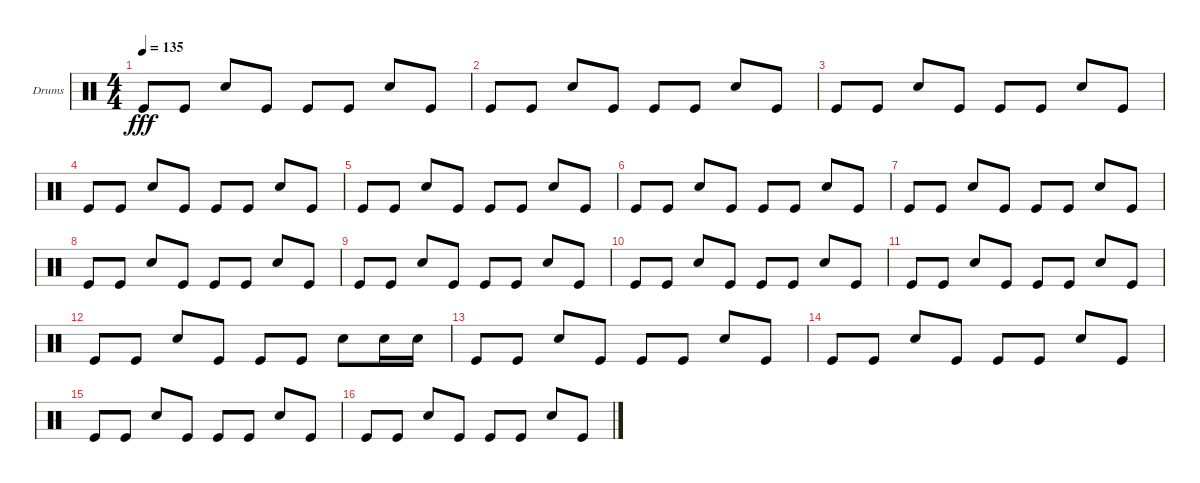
\defaultSystemsLayout 4
\bracketExtendMode groupsimilarinstruments
\firstSystemTrackNameOrientation horizontal
\otherSystemsTrackNameOrientation horizontal
\track ("Helders" "Drums") {instrument percussion}
\staff {score}
\articulation defaults
\ts (4 4)
\tempo 135
\clef neutral
\ks c "Kick (hit)".8{dy fff} "Kick (hit)".8 "Snare (hit) 2".8 "Kick (hit)".8 "Kick (hit)".8 "Kick (hit)".8 "Snare (hit) 2".8 "Kick (hit)".8
|
"Kick (hit)".8 "Kick (hit)".8 "Snare (hit) 2".8 "Kick (hit)".8 "Kick (hit)".8 "Kick (hit)".8 "Snare (hit) 2".8 "Kick (hit)".8 |
"Kick (hit)".8 "Kick (hit)".8 "Snare (hit) 2".8 "Kick (hit)".8 "Kick (hit)".8 "Kick (hit)".8 "Snare (hit) 2".8 "Kick (hit)".8 |
"Kick (hit)".8 "Kick (hit)".8 "Snare (hit) 2".8 "Kick (hit)".8 "Kick (hit)".8 "Kick (hit)".8 "Snare (hit) 2".8 "Kick (hit)".8 |
"Kick (hit)".8 "Kick (hit)".8 "Snare (hit) 2".8 "Kick (hit)".8 "Kick (hit)".8 "Kick (hit)".8 "Snare (hit) 2".8 "Kick (hit)".8 |
"Kick (hit)".8 "Kick (hit)".8 "Snare (hit) 2".8 "Kick (hit)".8 "Kick (hit)".8 "Kick (hit)".8 "Snare (hit) 2".8 "Kick (hit)".8 |
"Kick (hit)".8 "Kick (hit)".8 "Snare (hit) 2".8 "Kick (hit)".8 "Kick (hit)".8 "Kick (hit)".8 "Snare (hit) 2".8 "Kick (hit)".8 |
"Kick (hit)".8 "Kick (hit)".8 "Snare (hit) 2".8 "Kick (hit)".8 "Kick (hit)".8 "Kick (hit)".8 "Snare (hit) 2".8 "Kick (hit)".8 |
"Kick (hit)".8 "Kick (hit)".8 "Snare (hit) 2".8 "Kick (hit)".8 "Kick (hit)".8 "Kick (hit)".8 "Snare (hit) 2".8 "Kick (hit)".8 |
"Kick (hit)".8 "Kick (hit)".8 "Snare (hit) 2".8 "Kick (hit)".8 "Kick (hit)".8 "Kick (hit)".8 "Snare (hit) 2".8 "Kick (hit)".8 |
"Kick (hit)".8 "Kick (hit)".8 "Snare (hit) 2".8 "Kick (hit)".8 "Kick (hit)".8 "Kick (hit)".8 "Snare (hit) 2".8 "Kick (hit)".8 |
"Kick (hit)".8 "Kick (hit)".8 "Snare (hit) 2".8 "Kick (hit)".8 "Kick (hit)".8 "Kick (hit)".8 "Snare (hit) 2".8 "Snare (hit) 2".16 "Snare (hit) 2".16 |
"Kick (hit)".8 "Kick (hit)".8 "Snare (hit) 2".8 "Kick (hit)".8 "Kick (hit)".8 "Kick (hit)".8 "Snare (hit) 2".8 "Kick (hit)".8 |
"Kick (hit)".8 "Kick (hit)".8 "Snare (hit) 2".8 "Kick (hit)".8 "Kick (hit)".8 "Kick (hit)".8 "Snare (hit) 2".8 "Kick (hit)".8 |
"Kick (hit)".8 "Kick (hit)".8 "Snare (hit) 2".8 "Kick (hit)".8 "Kick (hit)".8 "Kick (hit)".8 "Snare (hit) 2".8 "Kick (hit)".8 |
"Kick (hit)".8 "Kick (hit)".8 "Snare (hit) 2".8 "Kick (hit)".8 "Kick (hit)".8 "Kick (hit)".8 "Snare (hit) 2".8 "Kick (hit)".8
